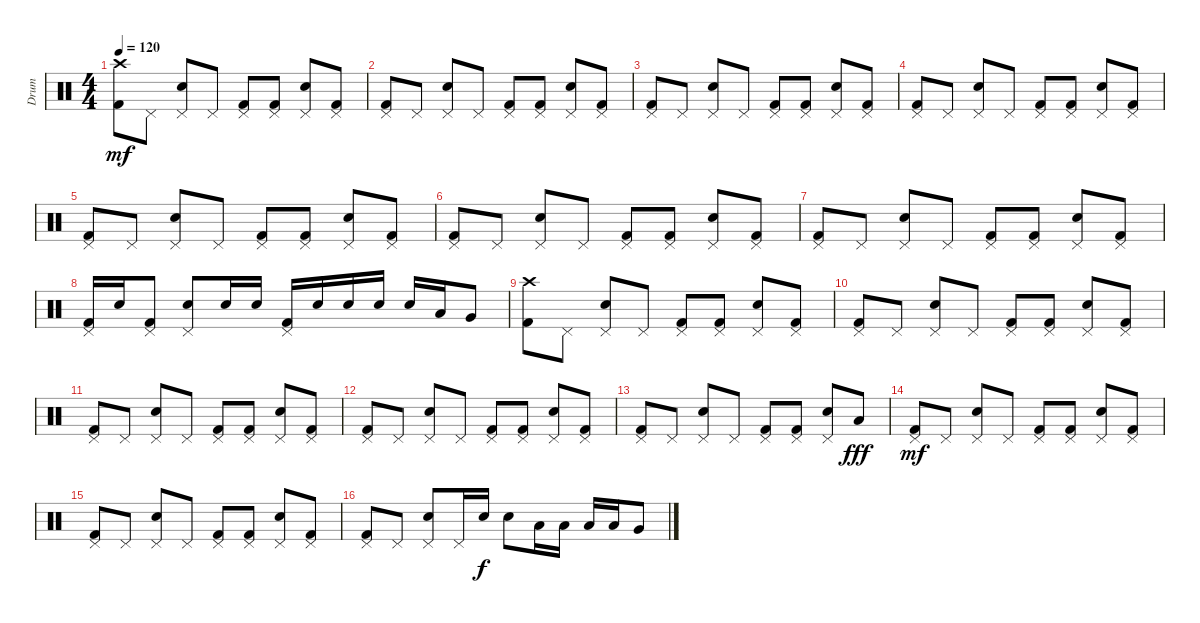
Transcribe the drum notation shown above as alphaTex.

\track ("Drum" "Drum") {instrument percussion}
\staff {score}
\articulation defaults
\ts (4 4)
\tempo 120
\clef neutral
\ks c
("Crash high (hit)" "Kick (hit) 2").8{dy mf} "Pedal Hi-Hat (hit)".8 ("Pedal Hi-Hat (hit)" "Electric Snare (hit)").8 "Pedal Hi-Hat (hit)".8 ("Pedal Hi-Hat (hit)" "Kick (hit) 2").8 ("Pedal Hi-Hat (hit)" "Kick (hit) 2").8 ("Pedal Hi-Hat (hit)" "Electric Snare (hit)").8 ("Pedal Hi-Hat (hit)" "Kick (hit) 2").8 |
("Pedal Hi-Hat (hit)" "Kick (hit) 2").8 "Pedal Hi-Hat (hit)".8 ("Pedal Hi-Hat (hit)" "Electric Snare (hit)").8 "Pedal Hi-Hat (hit)".8 ("Pedal Hi-Hat (hit)" "Kick (hit) 2").8 ("Pedal Hi-Hat (hit)" "Kick (hit) 2").8 ("Pedal Hi-Hat (hit)" "Electric Snare (hit)").8 ("Pedal Hi-Hat (hit)" "Kick (hit) 2").8 |
("Pedal Hi-Hat (hit)" "Kick (hit) 2").8 "Pedal Hi-Hat (hit)".8 ("Pedal Hi-Hat (hit)" "Electric Snare (hit)").8 "Pedal Hi-Hat (hit)".8 ("Pedal Hi-Hat (hit)" "Kick (hit) 2").8 ("Pedal Hi-Hat (hit)" "Kick (hit) 2").8 ("Pedal Hi-Hat (hit)" "Electric Snare (hit)").8 ("Pedal Hi-Hat (hit)" "Kick (hit) 2").8 |
("Pedal Hi-Hat (hit)" "Kick (hit) 2").8 "Pedal Hi-Hat (hit)".8 ("Pedal Hi-Hat (hit)" "Electric Snare (hit)").8 "Pedal Hi-Hat (hit)".8 ("Pedal Hi-Hat (hit)" "Kick (hit) 2").8 ("Pedal Hi-Hat (hit)" "Kick (hit) 2").8 ("Pedal Hi-Hat (hit)" "Electric Snare (hit)").8 ("Pedal Hi-Hat (hit)" "Kick (hit) 2").8 |
("Pedal Hi-Hat (hit)" "Kick (hit) 2").8 "Pedal Hi-Hat (hit)".8 ("Pedal Hi-Hat (hit)" "Electric Snare (hit)").8 "Pedal Hi-Hat (hit)".8 ("Pedal Hi-Hat (hit)" "Kick (hit) 2").8 ("Pedal Hi-Hat (hit)" "Kick (hit) 2").8 ("Pedal Hi-Hat (hit)" "Electric Snare (hit)").8 ("Pedal Hi-Hat (hit)" "Kick (hit) 2").8 |
("Pedal Hi-Hat (hit)" "Kick (hit) 2").8 "Pedal Hi-Hat (hit)".8 ("Pedal Hi-Hat (hit)" "Electric Snare (hit)").8 "Pedal Hi-Hat (hit)".8 ("Pedal Hi-Hat (hit)" "Kick (hit) 2").8 ("Pedal Hi-Hat (hit)" "Kick (hit) 2").8 ("Pedal Hi-Hat (hit)" "Electric Snare (hit)").8 ("Pedal Hi-Hat (hit)" "Kick (hit) 2").8 |
("Pedal Hi-Hat (hit)" "Kick (hit) 2").8 "Pedal Hi-Hat (hit)".8 ("Pedal Hi-Hat (hit)" "Electric Snare (hit)").8 "Pedal Hi-Hat (hit)".8 ("Pedal Hi-Hat (hit)" "Kick (hit) 2").8 ("Pedal Hi-Hat (hit)" "Kick (hit) 2").8 ("Pedal Hi-Hat (hit)" "Electric Snare (hit)").8 ("Pedal Hi-Hat (hit)" "Kick (hit) 2").8 |
("Pedal Hi-Hat (hit)" "Kick (hit) 2").16 "Electric Snare (hit)".16 ("Pedal Hi-Hat (hit)" "Kick (hit) 2").8 ("Pedal Hi-Hat (hit)" "Electric Snare (hit)").8 "Electric Snare (hit)".16 "Electric Snare (hit)".16 ("Pedal Hi-Hat (hit)" "Kick (hit) 2").16 "Electric Snare (hit)".16 "Electric Snare (hit)".16 "Electric Snare (hit)".16 "Electric Snare (hit)".16 "Low Tom (hit)".16 "Very Low Tom (hit)".8 |
("Crash high (hit)" "Kick (hit) 2").8 "Pedal Hi-Hat (hit)".8 ("Pedal Hi-Hat (hit)" "Electric Snare (hit)").8 "Pedal Hi-Hat (hit)".8 ("Pedal Hi-Hat (hit)" "Kick (hit) 2").8 ("Pedal Hi-Hat (hit)" "Kick (hit) 2").8 ("Pedal Hi-Hat (hit)" "Electric Snare (hit)").8 ("Pedal Hi-Hat (hit)" "Kick (hit) 2").8 |
("Pedal Hi-Hat (hit)" "Kick (hit) 2").8 "Pedal Hi-Hat (hit)".8 ("Pedal Hi-Hat (hit)" "Electric Snare (hit)").8 "Pedal Hi-Hat (hit)".8 ("Pedal Hi-Hat (hit)" "Kick (hit) 2").8 ("Pedal Hi-Hat (hit)" "Kick (hit) 2").8 ("Pedal Hi-Hat (hit)" "Electric Snare (hit)").8 ("Pedal Hi-Hat (hit)" "Kick (hit) 2").8 |
("Pedal Hi-Hat (hit)" "Kick (hit) 2").8 "Pedal Hi-Hat (hit)".8 ("Pedal Hi-Hat (hit)" "Electric Snare (hit)").8 "Pedal Hi-Hat (hit)".8 ("Pedal Hi-Hat (hit)" "Kick (hit) 2").8 ("Pedal Hi-Hat (hit)" "Kick (hit) 2").8 ("Pedal Hi-Hat (hit)" "Electric Snare (hit)").8 ("Pedal Hi-Hat (hit)" "Kick (hit) 2").8 |
("Pedal Hi-Hat (hit)" "Kick (hit) 2").8 "Pedal Hi-Hat (hit)".8 ("Pedal Hi-Hat (hit)" "Electric Snare (hit)").8 "Pedal Hi-Hat (hit)".8 ("Pedal Hi-Hat (hit)" "Kick (hit) 2").8 ("Pedal Hi-Hat (hit)" "Kick (hit) 2").8 ("Pedal Hi-Hat (hit)" "Electric Snare (hit)").8 ("Pedal Hi-Hat (hit)" "Kick (hit) 2").8 |
("Pedal Hi-Hat (hit)" "Kick (hit) 2").8 "Pedal Hi-Hat (hit)".8 ("Pedal Hi-Hat (hit)" "Electric Snare (hit)").8 "Pedal Hi-Hat (hit)".8 ("Pedal Hi-Hat (hit)" "Kick (hit) 2").8 ("Pedal Hi-Hat (hit)" "Kick (hit) 2").8 ("Pedal Hi-Hat (hit)" "Electric Snare (hit)").8 "Low Floor Tom (hit)".8{dy fff} |
("Pedal Hi-Hat (hit)" "Kick (hit) 2").8{dy mf} "Pedal Hi-Hat (hit)".8 ("Pedal Hi-Hat (hit)" "Electric Snare (hit)").8 "Pedal Hi-Hat (hit)".8 ("Pedal Hi-Hat (hit)" "Kick (hit) 2").8 ("Pedal Hi-Hat (hit)" "Kick (hit) 2").8 ("Pedal Hi-Hat (hit)" "Electric Snare (hit)").8 ("Pedal Hi-Hat (hit)" "Kick (hit) 2").8 |
("Pedal Hi-Hat (hit)" "Kick (hit) 2").8 "Pedal Hi-Hat (hit)".8 ("Pedal Hi-Hat (hit)" "Electric Snare (hit)").8 "Pedal Hi-Hat (hit)".8 ("Pedal Hi-Hat (hit)" "Kick (hit) 2").8 ("Pedal Hi-Hat (hit)" "Kick (hit) 2").8 ("Pedal Hi-Hat (hit)" "Electric Snare (hit)").8 ("Pedal Hi-Hat (hit)" "Kick (hit) 2").8 |
("Pedal Hi-Hat (hit)" "Kick (hit) 2").8 "Pedal Hi-Hat (hit)".8 ("Pedal Hi-Hat (hit)" "Electric Snare (hit)").8 "Pedal Hi-Hat (hit)".16 "Electric Snare (hit)".16{dy f} "Electric Snare (hit)".8 "Low Tom (hit)".16 "Low Tom (hit)".16 "Low Tom (hit)".16 "Low Tom (hit)".16 "Very Low Tom (hit)".8
